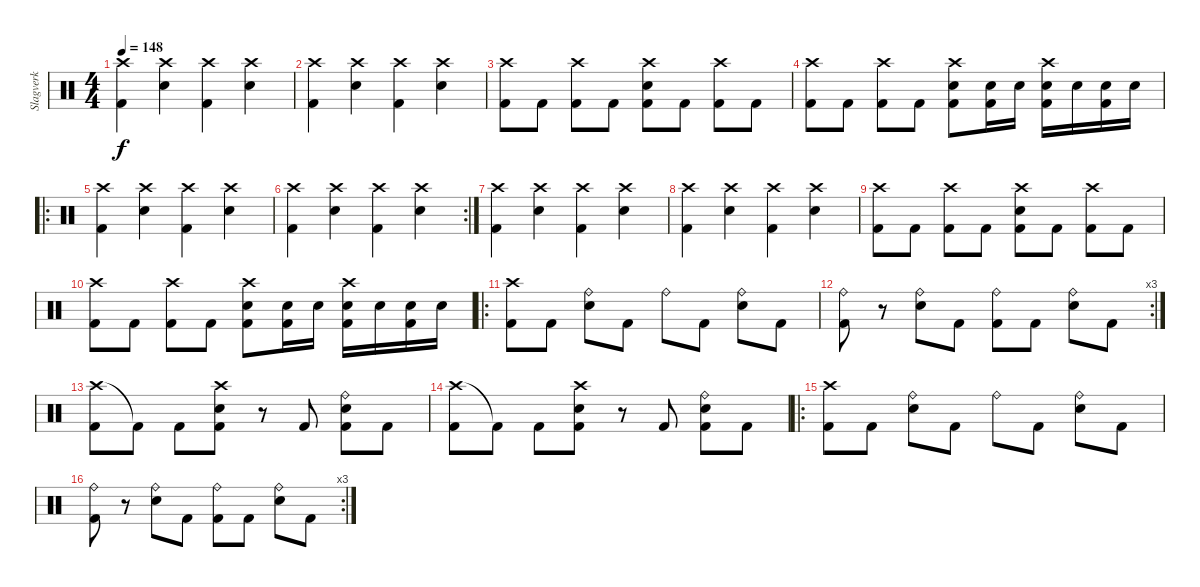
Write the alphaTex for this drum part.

\track ("Slagverk" "Slagverk") {instrument percussion}
\staff {score}
\articulation defaults
\ts (4 4)
\tempo 148
\clef neutral
\ks c
("Crash high (hit)" "Kick (hit) 2").4{dy f} ("Crash high (hit)" "Electric Snare (hit)").4 ("Crash high (hit)" "Kick (hit) 2").4 ("Crash high (hit)" "Electric Snare (hit)").4 |
("Crash high (hit)" "Kick (hit) 2").4 ("Crash high (hit)" "Electric Snare (hit)").4 ("Crash high (hit)" "Kick (hit) 2").4 ("Crash high (hit)" "Electric Snare (hit)").4 |
("Crash high (hit)" "Kick (hit) 2").8 "Kick (hit) 2".8 ("Crash high (hit)" "Kick (hit) 2").8 "Kick (hit) 2".8 ("Crash high (hit)" "Electric Snare (hit)" "Kick (hit) 2").8 "Kick (hit) 2".8 ("Crash high (hit)" "Kick (hit) 2").8 "Kick (hit) 2".8 |
("Crash high (hit)" "Kick (hit) 2").8 "Kick (hit) 2".8 ("Crash high (hit)" "Kick (hit) 2").8 "Kick (hit) 2".8 ("Crash high (hit)" "Electric Snare (hit)" "Kick (hit) 2").8 ("Electric Snare (hit)" "Kick (hit) 2").16 "Electric Snare (hit)".16 ("Crash high (hit)" "Electric Snare (hit)" "Kick (hit) 2").16 "Electric Snare (hit)".16 ("Electric Snare (hit)" "Kick (hit) 2").16 "Electric Snare (hit)".16 |
\ro
("Crash high (hit)" "Kick (hit) 2").4 ("Crash high (hit)" "Electric Snare (hit)").4 ("Crash high (hit)" "Kick (hit) 2").4 ("Crash high (hit)" "Electric Snare (hit)").4 |
\rc 2
("Crash high (hit)" "Kick (hit) 2").4 ("Crash high (hit)" "Electric Snare (hit)").4 ("Crash high (hit)" "Kick (hit) 2").4 ("Crash high (hit)" "Electric Snare (hit)").4 |
("Crash high (hit)" "Kick (hit) 2").4 ("Crash high (hit)" "Electric Snare (hit)").4 ("Crash high (hit)" "Kick (hit) 2").4 ("Crash high (hit)" "Electric Snare (hit)").4 |
("Crash high (hit)" "Kick (hit) 2").4 ("Crash high (hit)" "Electric Snare (hit)").4 ("Crash high (hit)" "Kick (hit) 2").4 ("Crash high (hit)" "Electric Snare (hit)").4 |
("Crash high (hit)" "Kick (hit) 2").8 "Kick (hit) 2".8 ("Crash high (hit)" "Kick (hit) 2").8 "Kick (hit) 2".8 ("Crash high (hit)" "Electric Snare (hit)" "Kick (hit) 2").8 "Kick (hit) 2".8 ("Crash high (hit)" "Kick (hit) 2").8 "Kick (hit) 2".8 |
("Crash high (hit)" "Kick (hit) 2").8 "Kick (hit) 2".8 ("Crash high (hit)" "Kick (hit) 2").8 "Kick (hit) 2".8 ("Crash high (hit)" "Electric Snare (hit)" "Kick (hit) 2").8 ("Electric Snare (hit)" "Kick (hit) 2").16 "Electric Snare (hit)".16 ("Crash high (hit)" "Electric Snare (hit)" "Kick (hit) 2").16 "Electric Snare (hit)".16 ("Electric Snare (hit)" "Kick (hit) 2").16 "Electric Snare (hit)".16 |
\ro
("Crash high (hit)" "Kick (hit) 2").8 "Kick (hit) 2".8 ("Ride (bell)" "Electric Snare (hit)").8 "Kick (hit) 2".8 "Ride (bell)".8 "Kick (hit) 2".8 ("Ride (bell)" "Electric Snare (hit)").8 "Kick (hit) 2".8 |
\rc 3
("Ride (bell)" "Kick (hit) 2").8 r.8 ("Ride (bell)" "Electric Snare (hit)").8 "Kick (hit) 2".8 ("Ride (bell)" "Kick (hit) 2").8 "Kick (hit) 2".8 ("Ride (bell)" "Electric Snare (hit)").8 "Kick (hit) 2".8 |
("Crash high (hit)" "Kick (hit) 2").8 "Kick (hit) 2"{t}.8 "Kick (hit) 2".8 ("Crash high (hit)" "Electric Snare (hit)" "Kick (hit) 2").8 r.8 "Kick (hit) 2".8 ("Ride (bell)" "Electric Snare (hit)" "Kick (hit) 2").8 "Kick (hit) 2".8 |
("Crash high (hit)" "Kick (hit) 2").8 "Kick (hit) 2"{t}.8 "Kick (hit) 2".8 ("Crash high (hit)" "Electric Snare (hit)" "Kick (hit) 2").8 r.8 "Kick (hit) 2".8 ("Ride (bell)" "Electric Snare (hit)" "Kick (hit) 2").8 "Kick (hit) 2".8 |
\ro
("Crash high (hit)" "Kick (hit) 2").8 "Kick (hit) 2".8 ("Ride (bell)" "Electric Snare (hit)").8 "Kick (hit) 2".8 "Ride (bell)".8 "Kick (hit) 2".8 ("Ride (bell)" "Electric Snare (hit)").8 "Kick (hit) 2".8 |
\rc 3
("Ride (bell)" "Kick (hit) 2").8 r.8 ("Ride (bell)" "Electric Snare (hit)").8 "Kick (hit) 2".8 ("Ride (bell)" "Kick (hit) 2").8 "Kick (hit) 2".8 ("Ride (bell)" "Electric Snare (hit)").8 "Kick (hit) 2".8
